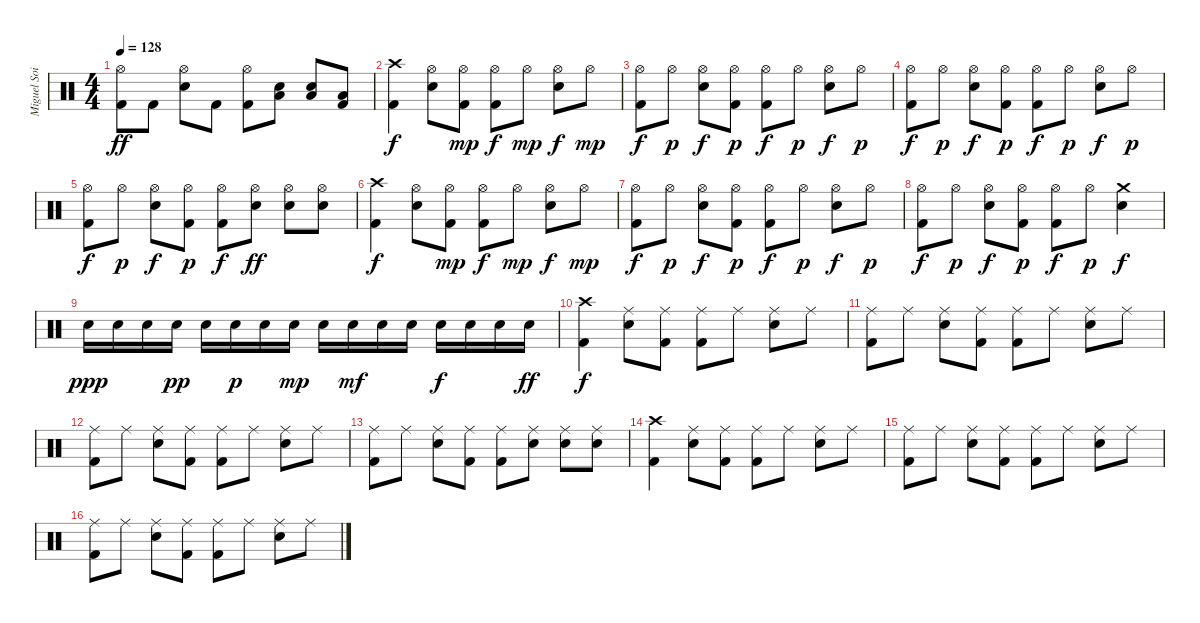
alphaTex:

\track ("Miguel Soifer (Batería)" "Miguel Soi") {instrument percussion}
\staff {score}
\articulation defaults
\ts (4 4)
\tempo 128
\clef neutral
\ks c
("Hi-Hat (open)" "Kick (hit) 2").8{dy ff} "Kick (hit) 2".8 ("Hi-Hat (open)" "Snare (hit) 2").8 "Kick (hit) 2".8 ("Hi-Hat (open)" "Kick (hit) 2").8 ("Low Floor Tom (hit)" "Snare (hit) 2").8 ("Low Floor Tom (hit)" "Snare (hit) 2").8 ("Low Floor Tom (hit)" "Kick (hit) 2").8 |
("Crash high (hit)" "Kick (hit) 2").4{dy f} ("Hi-Hat (open)" "Snare (hit) 2").8 ("Hi-Hat (open)" "Kick (hit) 2").8{dy mp} ("Hi-Hat (open)" "Kick (hit) 2").8{dy f} "Hi-Hat (open)".8{dy mp} ("Hi-Hat (open)" "Snare (hit) 2").8{dy f} "Hi-Hat (open)".8{dy mp} |
("Hi-Hat (open)" "Kick (hit) 2").8{dy f} "Hi-Hat (open)".8{dy p} ("Hi-Hat (open)" "Snare (hit) 2").8{dy f} ("Hi-Hat (open)" "Kick (hit) 2").8{dy p} ("Hi-Hat (open)" "Kick (hit) 2").8{dy f} "Hi-Hat (open)".8{dy p} ("Hi-Hat (open)" "Snare (hit) 2").8{dy f} "Hi-Hat (open)".8{dy p} |
("Hi-Hat (open)" "Kick (hit) 2").8{dy f} "Hi-Hat (open)".8{dy p} ("Hi-Hat (open)" "Snare (hit) 2").8{dy f} ("Hi-Hat (open)" "Kick (hit) 2").8{dy p} ("Hi-Hat (open)" "Kick (hit) 2").8{dy f} "Hi-Hat (open)".8{dy p} ("Hi-Hat (open)" "Snare (hit) 2").8{dy f} "Hi-Hat (open)".8{dy p} |
("Hi-Hat (open)" "Kick (hit) 2").8{dy f} "Hi-Hat (open)".8{dy p} ("Hi-Hat (open)" "Snare (hit) 2").8{dy f} ("Hi-Hat (open)" "Kick (hit) 2").8{dy p} ("Hi-Hat (open)" "Kick (hit) 2").8{dy f} ("Hi-Hat (open)" "Snare (hit) 2").8{dy ff} ("Hi-Hat (open)" "Snare (hit) 2").8 ("Hi-Hat (open)" "Snare (hit) 2").8 |
("Crash high (hit)" "Kick (hit) 2").4{dy f} ("Hi-Hat (open)" "Snare (hit) 2").8 ("Hi-Hat (open)" "Kick (hit) 2").8{dy mp} ("Hi-Hat (open)" "Kick (hit) 2").8{dy f} "Hi-Hat (open)".8{dy mp} ("Hi-Hat (open)" "Snare (hit) 2").8{dy f} "Hi-Hat (open)".8{dy mp} |
("Hi-Hat (open)" "Kick (hit) 2").8{dy f} "Hi-Hat (open)".8{dy p} ("Hi-Hat (open)" "Snare (hit) 2").8{dy f} ("Hi-Hat (open)" "Kick (hit) 2").8{dy p} ("Hi-Hat (open)" "Kick (hit) 2").8{dy f} "Hi-Hat (open)".8{dy p} ("Hi-Hat (open)" "Snare (hit) 2").8{dy f} "Hi-Hat (open)".8{dy p} |
("Hi-Hat (open)" "Kick (hit) 2").8{dy f} "Hi-Hat (open)".8{dy p} ("Hi-Hat (open)" "Snare (hit) 2").8{dy f} ("Hi-Hat (open)" "Kick (hit) 2").8{dy p} ("Hi-Hat (open)" "Kick (hit) 2").8{dy f} "Hi-Hat (open)".8{dy p} ("Crash medium (hit)" "Snare (hit) 2").4{dy f} |
"Snare (hit) 2".16{dy ppp} "Snare (hit) 2".16 "Snare (hit) 2".16 "Snare (hit) 2".16{dy pp} "Snare (hit) 2".16 "Snare (hit) 2".16{dy p} "Snare (hit) 2".16 "Snare (hit) 2".16{dy mp} "Snare (hit) 2".16 "Snare (hit) 2".16{dy mf} "Snare (hit) 2".16 "Snare (hit) 2".16 "Snare (hit) 2".16{dy f} "Snare (hit) 2".16 "Snare (hit) 2".16 "Snare (hit) 2".16{dy ff} |
("Crash high (hit)" "Kick (hit) 2").4{dy f} ("Ride (middle)" "Snare (hit) 2").8 ("Ride (middle)" "Kick (hit) 2").8 ("Ride (middle)" "Kick (hit) 2").8 "Ride (middle)".8 ("Ride (middle)" "Snare (hit) 2").8 "Ride (middle)".8 |
("Ride (middle)" "Kick (hit) 2").8 "Ride (middle)".8 ("Ride (middle)" "Snare (hit) 2").8 ("Ride (middle)" "Kick (hit) 2").8 ("Ride (middle)" "Kick (hit) 2").8 "Ride (middle)".8 ("Ride (middle)" "Snare (hit) 2").8 "Ride (middle)".8 |
("Ride (middle)" "Kick (hit) 2").8 "Ride (middle)".8 ("Ride (middle)" "Snare (hit) 2").8 ("Ride (middle)" "Kick (hit) 2").8 ("Ride (middle)" "Kick (hit) 2").8 "Ride (middle)".8 ("Ride (middle)" "Snare (hit) 2").8 "Ride (middle)".8 |
("Ride (middle)" "Kick (hit) 2").8 "Ride (middle)".8 ("Ride (middle)" "Snare (hit) 2").8 ("Ride (middle)" "Kick (hit) 2").8 ("Ride (middle)" "Kick (hit) 2").8 ("Ride (middle)" "Snare (hit) 2").8 ("Ride (middle)" "Snare (hit) 2").8 ("Ride (middle)" "Snare (hit) 2").8 |
("Crash high (hit)" "Kick (hit) 2").4 ("Ride (middle)" "Snare (hit) 2").8 ("Ride (middle)" "Kick (hit) 2").8 ("Ride (middle)" "Kick (hit) 2").8 "Ride (middle)".8 ("Ride (middle)" "Snare (hit) 2").8 "Ride (middle)".8 |
("Ride (middle)" "Kick (hit) 2").8 "Ride (middle)".8 ("Ride (middle)" "Snare (hit) 2").8 ("Ride (middle)" "Kick (hit) 2").8 ("Ride (middle)" "Kick (hit) 2").8 "Ride (middle)".8 ("Ride (middle)" "Snare (hit) 2").8 "Ride (middle)".8 |
("Ride (middle)" "Kick (hit) 2").8 "Ride (middle)".8 ("Ride (middle)" "Snare (hit) 2").8 ("Ride (middle)" "Kick (hit) 2").8 ("Ride (middle)" "Kick (hit) 2").8 "Ride (middle)".8 ("Ride (middle)" "Snare (hit) 2").8 "Ride (middle)".8
